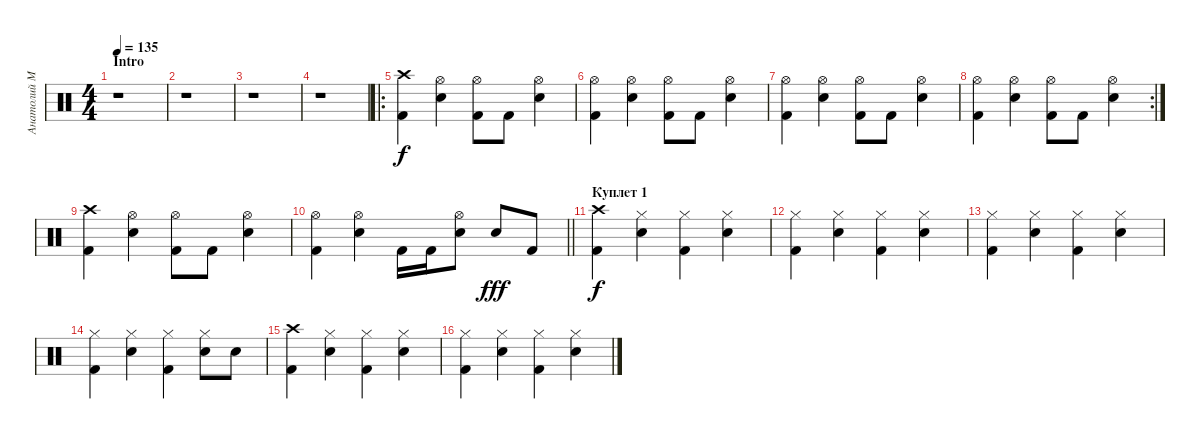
\track ("Анатолий Малиновский" "Анатолий М") {instrument percussion}
\staff {score}
\articulation defaults
\ts (4 4)
\section ("" "Intro")
\tempo 135
\clef neutral
\ks c
r.1{dy f} |
r.1 |
r.1 |
r.1 |
\ro
("Crash high (hit)" "Kick (hit) 2").4 ("Hi-Hat (open)" "Electric Snare (hit)").4 ("Hi-Hat (open)" "Kick (hit) 2").8 "Kick (hit) 2".8 ("Hi-Hat (open)" "Electric Snare (hit)").4 |
("Hi-Hat (open)" "Kick (hit) 2").4 ("Hi-Hat (open)" "Electric Snare (hit)").4 ("Hi-Hat (open)" "Kick (hit) 2").8 "Kick (hit) 2".8 ("Hi-Hat (open)" "Electric Snare (hit)").4 |
("Hi-Hat (open)" "Kick (hit) 2").4 ("Hi-Hat (open)" "Electric Snare (hit)").4 ("Hi-Hat (open)" "Kick (hit) 2").8 "Kick (hit) 2".8 ("Hi-Hat (open)" "Electric Snare (hit)").4 |
\rc 2
("Hi-Hat (open)" "Kick (hit) 2").4 ("Hi-Hat (open)" "Electric Snare (hit)").4 ("Hi-Hat (open)" "Kick (hit) 2").8 "Kick (hit) 2".8 ("Hi-Hat (open)" "Electric Snare (hit)").4 |
("Crash high (hit)" "Kick (hit) 2").4 ("Hi-Hat (open)" "Electric Snare (hit)").4 ("Hi-Hat (open)" "Kick (hit) 2").8 "Kick (hit) 2".8 ("Hi-Hat (open)" "Electric Snare (hit)").4 |
\barLineRight lightlight
("Hi-Hat (open)" "Kick (hit) 2").4 ("Hi-Hat (open)" "Electric Snare (hit)").4 "Kick (hit) 2".16 "Kick (hit) 2".16 ("Hi-Hat (open)" "Electric Snare (hit)").8 "Electric Snare (hit)".8{dy fff} "Kick (hit) 2".8 |
\section ("" "Куплет 1")
("Crash high (hit)" "Kick (hit) 2").4{dy f} ("Hi-Hat (closed)" "Electric Snare (hit)").4 ("Hi-Hat (closed)" "Kick (hit) 2").4 ("Hi-Hat (closed)" "Electric Snare (hit)").4 |
("Hi-Hat (closed)" "Kick (hit) 2").4 ("Hi-Hat (closed)" "Electric Snare (hit)").4 ("Hi-Hat (closed)" "Kick (hit) 2").4 ("Hi-Hat (closed)" "Electric Snare (hit)").4 |
("Hi-Hat (closed)" "Kick (hit) 2").4 ("Hi-Hat (closed)" "Electric Snare (hit)").4 ("Hi-Hat (closed)" "Kick (hit) 2").4 ("Hi-Hat (closed)" "Electric Snare (hit)").4 |
("Hi-Hat (closed)" "Kick (hit) 2").4 ("Hi-Hat (closed)" "Electric Snare (hit)").4 ("Hi-Hat (closed)" "Kick (hit) 2").4 ("Hi-Hat (closed)" "Electric Snare (hit)").8 "Electric Snare (hit)".8 |
("Crash high (hit)" "Kick (hit) 2").4 ("Hi-Hat (closed)" "Electric Snare (hit)").4 ("Hi-Hat (closed)" "Kick (hit) 2").4 ("Hi-Hat (closed)" "Electric Snare (hit)").4 |
("Hi-Hat (closed)" "Kick (hit) 2").4 ("Hi-Hat (closed)" "Electric Snare (hit)").4 ("Hi-Hat (closed)" "Kick (hit) 2").4 ("Hi-Hat (closed)" "Electric Snare (hit)").4
